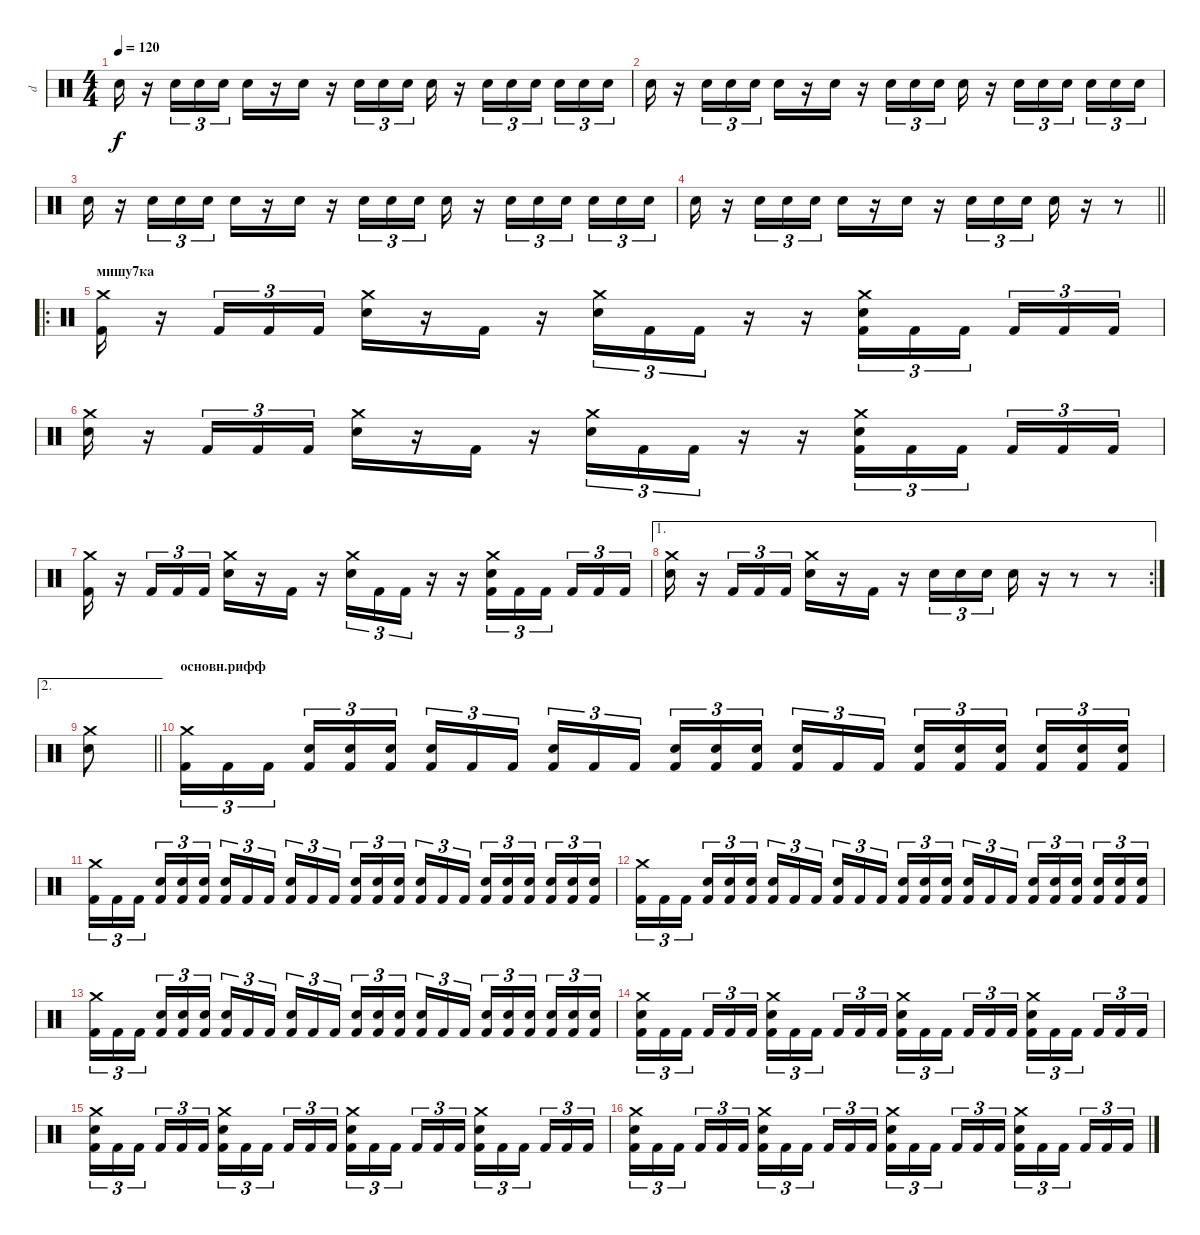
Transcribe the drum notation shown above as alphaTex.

\track ("d" "d") {instrument percussion}
\staff {score}
\articulation defaults
\ts (4 4)
\tempo 120
\clef neutral
\ks c "Electric Snare (hit)".16{dy f volume 2}
r.16{volume 11} "Electric Snare (hit)".16{tu (3 2)} "Electric Snare (hit)".16{tu (3 2)} "Electric Snare (hit)".16{tu (3 2)} "Electric Snare (hit)".16 r.16 "Electric Snare (hit)".16 r.16 "Electric Snare (hit)".16{tu (3 2)} "Electric Snare (hit)".16{tu (3 2)} "Electric Snare (hit)".16{tu (3 2)} "Electric Snare (hit)".16 r.16 "Electric Snare (hit)".16{tu (3 2)} "Electric Snare (hit)".16{tu (3 2)} "Electric Snare (hit)".16{tu (3 2)} "Electric Snare (hit)".16{tu (3 2)} "Electric Snare (hit)".16{tu (3 2)} "Electric Snare (hit)".16{tu (3 2)} |
"Electric Snare (hit)".16 r.16 "Electric Snare (hit)".16{tu (3 2)} "Electric Snare (hit)".16{tu (3 2)} "Electric Snare (hit)".16{tu (3 2)} "Electric Snare (hit)".16 r.16 "Electric Snare (hit)".16 r.16 "Electric Snare (hit)".16{tu (3 2)} "Electric Snare (hit)".16{tu (3 2)} "Electric Snare (hit)".16{tu (3 2)} "Electric Snare (hit)".16 r.16 "Electric Snare (hit)".16{tu (3 2)} "Electric Snare (hit)".16{tu (3 2)} "Electric Snare (hit)".16{tu (3 2)} "Electric Snare (hit)".16{tu (3 2)} "Electric Snare (hit)".16{tu (3 2)} "Electric Snare (hit)".16{tu (3 2)} |
"Electric Snare (hit)".16 r.16 "Electric Snare (hit)".16{tu (3 2)} "Electric Snare (hit)".16{tu (3 2)} "Electric Snare (hit)".16{tu (3 2)} "Electric Snare (hit)".16 r.16 "Electric Snare (hit)".16 r.16 "Electric Snare (hit)".16{tu (3 2)} "Electric Snare (hit)".16{tu (3 2)} "Electric Snare (hit)".16{tu (3 2)} "Electric Snare (hit)".16 r.16 "Electric Snare (hit)".16{tu (3 2)} "Electric Snare (hit)".16{tu (3 2)} "Electric Snare (hit)".16{tu (3 2)} "Electric Snare (hit)".16{tu (3 2)} "Electric Snare (hit)".16{tu (3 2)} "Electric Snare (hit)".16{tu (3 2)} |
\barLineRight lightlight "Electric Snare (hit)".16
r.16 "Electric Snare (hit)".16{tu (3 2)} "Electric Snare (hit)".16{tu (3 2)} "Electric Snare (hit)".16{tu (3 2)} "Electric Snare (hit)".16 r.16 "Electric Snare (hit)".16 r.16 "Electric Snare (hit)".16{tu (3 2)} "Electric Snare (hit)".16{tu (3 2)} "Electric Snare (hit)".16{tu (3 2)} "Electric Snare (hit)".16 r.16 r.8 |
\ro
\section ("" "мишу7ка")
("Kick (hit) 2" "Crash medium (hit)").16 r.16 "Kick (hit) 2".16{tu (3 2)} "Kick (hit) 2".16{tu (3 2)} "Kick (hit) 2".16{tu (3 2)} ("Electric Snare (hit)" "Crash medium (hit)").16 r.16 "Kick (hit) 2".16 r.16 ("Electric Snare (hit)" "Crash medium (hit)").16{tu (3 2)} "Kick (hit) 2".16{tu (3 2)} "Kick (hit) 2".16{tu (3 2)} r.16 r.16 ("Kick (hit) 2" "Electric Snare (hit)" "Crash medium (hit)").16{tu (3 2)} "Kick (hit) 2".16{tu (3 2)} "Kick (hit) 2".16{tu (3 2)} "Kick (hit) 2".16{tu (3 2)} "Kick (hit) 2".16{tu (3 2)} "Kick (hit) 2".16{tu (3 2)} |
("Electric Snare (hit)" "Crash medium (hit)").16 r.16 "Kick (hit) 2".16{tu (3 2)} "Kick (hit) 2".16{tu (3 2)} "Kick (hit) 2".16{tu (3 2)} ("Electric Snare (hit)" "Crash medium (hit)").16 r.16 "Kick (hit) 2".16 r.16 ("Electric Snare (hit)" "Crash medium (hit)").16{tu (3 2)} "Kick (hit) 2".16{tu (3 2)} "Kick (hit) 2".16{tu (3 2)} r.16 r.16 ("Kick (hit) 2" "Electric Snare (hit)" "Crash medium (hit)").16{tu (3 2)} "Kick (hit) 2".16{tu (3 2)} "Kick (hit) 2".16{tu (3 2)} "Kick (hit) 2".16{tu (3 2)} "Kick (hit) 2".16{tu (3 2)} "Kick (hit) 2".16{tu (3 2)} |
("Kick (hit) 2" "Crash medium (hit)").16 r.16 "Kick (hit) 2".16{tu (3 2)} "Kick (hit) 2".16{tu (3 2)} "Kick (hit) 2".16{tu (3 2)} ("Electric Snare (hit)" "Crash medium (hit)").16 r.16 "Kick (hit) 2".16 r.16 ("Electric Snare (hit)" "Crash medium (hit)").16{tu (3 2)} "Kick (hit) 2".16{tu (3 2)} "Kick (hit) 2".16{tu (3 2)} r.16 r.16 ("Kick (hit) 2" "Electric Snare (hit)" "Crash medium (hit)").16{tu (3 2)} "Kick (hit) 2".16{tu (3 2)} "Kick (hit) 2".16{tu (3 2)} "Kick (hit) 2".16{tu (3 2)} "Kick (hit) 2".16{tu (3 2)} "Kick (hit) 2".16{tu (3 2)} |
\ae 1
\rc 2
("Electric Snare (hit)" "Crash medium (hit)").16 r.16 "Kick (hit) 2".16{tu (3 2)} "Kick (hit) 2".16{tu (3 2)} "Kick (hit) 2".16{tu (3 2)} ("Electric Snare (hit)" "Crash medium (hit)").16 r.16 "Kick (hit) 2".16 r.16 "Electric Snare (hit)".16{tu (3 2)} "Electric Snare (hit)".16{tu (3 2)} "Electric Snare (hit)".16{tu (3 2)} "Electric Snare (hit)".16 r.16 r.8 r.8 |
\ae 2
\barLineRight lightlight
("Electric Snare (hit)" "Crash medium (hit)").8 |
\section ("" "основн.рифф")
("Crash medium (hit)" "Kick (hit) 2").16{tu (3 2)} "Kick (hit) 2".16{tu (3 2)} "Kick (hit) 2".16{tu (3 2)} ("Electric Snare (hit)" "Kick (hit) 2").16{tu (3 2)} ("Electric Snare (hit)" "Kick (hit) 2").16{tu (3 2)} ("Electric Snare (hit)" "Kick (hit) 2").16{tu (3 2)} ("Electric Snare (hit)" "Kick (hit) 2").16{tu (3 2)} "Kick (hit) 2".16{tu (3 2)} "Kick (hit) 2".16{tu (3 2)} ("Electric Snare (hit)" "Kick (hit) 2").16{tu (3 2)} "Kick (hit) 2".16{tu (3 2)} "Kick (hit) 2".16{tu (3 2)} ("Electric Snare (hit)" "Kick (hit) 2").16{tu (3 2)} ("Electric Snare (hit)" "Kick (hit) 2").16{tu (3 2)} ("Electric Snare (hit)" "Kick (hit) 2").16{tu (3 2)} ("Electric Snare (hit)" "Kick (hit) 2").16{tu (3 2)} "Kick (hit) 2".16{tu (3 2)} "Kick (hit) 2".16{tu (3 2)} ("Electric Snare (hit)" "Kick (hit) 2").16{tu (3 2)} ("Electric Snare (hit)" "Kick (hit) 2").16{tu (3 2)} ("Electric Snare (hit)" "Kick (hit) 2").16{tu (3 2)} ("Electric Snare (hit)" "Kick (hit) 2").16{tu (3 2)} ("Electric Snare (hit)" "Kick (hit) 2").16{tu (3 2)} ("Electric Snare (hit)" "Kick (hit) 2").16{tu (3 2)} |
("Crash medium (hit)" "Kick (hit) 2").16{tu (3 2)} "Kick (hit) 2".16{tu (3 2)} "Kick (hit) 2".16{tu (3 2)} ("Electric Snare (hit)" "Kick (hit) 2").16{tu (3 2)} ("Electric Snare (hit)" "Kick (hit) 2").16{tu (3 2)} ("Electric Snare (hit)" "Kick (hit) 2").16{tu (3 2)} ("Electric Snare (hit)" "Kick (hit) 2").16{tu (3 2)} "Kick (hit) 2".16{tu (3 2)} "Kick (hit) 2".16{tu (3 2)} ("Electric Snare (hit)" "Kick (hit) 2").16{tu (3 2)} "Kick (hit) 2".16{tu (3 2)} "Kick (hit) 2".16{tu (3 2)} ("Electric Snare (hit)" "Kick (hit) 2").16{tu (3 2)} ("Electric Snare (hit)" "Kick (hit) 2").16{tu (3 2)} ("Electric Snare (hit)" "Kick (hit) 2").16{tu (3 2)} ("Electric Snare (hit)" "Kick (hit) 2").16{tu (3 2)} "Kick (hit) 2".16{tu (3 2)} "Kick (hit) 2".16{tu (3 2)} ("Electric Snare (hit)" "Kick (hit) 2").16{tu (3 2)} ("Electric Snare (hit)" "Kick (hit) 2").16{tu (3 2)} ("Electric Snare (hit)" "Kick (hit) 2").16{tu (3 2)} ("Electric Snare (hit)" "Kick (hit) 2").16{tu (3 2)} ("Electric Snare (hit)" "Kick (hit) 2").16{tu (3 2)} ("Electric Snare (hit)" "Kick (hit) 2").16{tu (3 2)} |
("Crash medium (hit)" "Kick (hit) 2").16{tu (3 2)} "Kick (hit) 2".16{tu (3 2)} "Kick (hit) 2".16{tu (3 2)} ("Electric Snare (hit)" "Kick (hit) 2").16{tu (3 2)} ("Electric Snare (hit)" "Kick (hit) 2").16{tu (3 2)} ("Electric Snare (hit)" "Kick (hit) 2").16{tu (3 2)} ("Electric Snare (hit)" "Kick (hit) 2").16{tu (3 2)} "Kick (hit) 2".16{tu (3 2)} "Kick (hit) 2".16{tu (3 2)} ("Electric Snare (hit)" "Kick (hit) 2").16{tu (3 2)} "Kick (hit) 2".16{tu (3 2)} "Kick (hit) 2".16{tu (3 2)} ("Electric Snare (hit)" "Kick (hit) 2").16{tu (3 2)} ("Electric Snare (hit)" "Kick (hit) 2").16{tu (3 2)} ("Electric Snare (hit)" "Kick (hit) 2").16{tu (3 2)} ("Electric Snare (hit)" "Kick (hit) 2").16{tu (3 2)} "Kick (hit) 2".16{tu (3 2)} "Kick (hit) 2".16{tu (3 2)} ("Electric Snare (hit)" "Kick (hit) 2").16{tu (3 2)} ("Electric Snare (hit)" "Kick (hit) 2").16{tu (3 2)} ("Electric Snare (hit)" "Kick (hit) 2").16{tu (3 2)} ("Electric Snare (hit)" "Kick (hit) 2").16{tu (3 2)} ("Electric Snare (hit)" "Kick (hit) 2").16{tu (3 2)} ("Electric Snare (hit)" "Kick (hit) 2").16{tu (3 2)} |
("Crash medium (hit)" "Kick (hit) 2").16{tu (3 2)} "Kick (hit) 2".16{tu (3 2)} "Kick (hit) 2".16{tu (3 2)} ("Electric Snare (hit)" "Kick (hit) 2").16{tu (3 2)} ("Electric Snare (hit)" "Kick (hit) 2").16{tu (3 2)} ("Electric Snare (hit)" "Kick (hit) 2").16{tu (3 2)} ("Electric Snare (hit)" "Kick (hit) 2").16{tu (3 2)} "Kick (hit) 2".16{tu (3 2)} "Kick (hit) 2".16{tu (3 2)} ("Electric Snare (hit)" "Kick (hit) 2").16{tu (3 2)} "Kick (hit) 2".16{tu (3 2)} "Kick (hit) 2".16{tu (3 2)} ("Electric Snare (hit)" "Kick (hit) 2").16{tu (3 2)} ("Electric Snare (hit)" "Kick (hit) 2").16{tu (3 2)} ("Electric Snare (hit)" "Kick (hit) 2").16{tu (3 2)} ("Electric Snare (hit)" "Kick (hit) 2").16{tu (3 2)} "Kick (hit) 2".16{tu (3 2)} "Kick (hit) 2".16{tu (3 2)} ("Electric Snare (hit)" "Kick (hit) 2").16{tu (3 2)} ("Electric Snare (hit)" "Kick (hit) 2").16{tu (3 2)} ("Electric Snare (hit)" "Kick (hit) 2").16{tu (3 2)} ("Electric Snare (hit)" "Kick (hit) 2").16{tu (3 2)} ("Electric Snare (hit)" "Kick (hit) 2").16{tu (3 2)} ("Electric Snare (hit)" "Kick (hit) 2").16{tu (3 2)} |
("Crash medium (hit)" "Electric Snare (hit)" "Kick (hit) 2").16{tu (3 2)} "Kick (hit) 2".16{tu (3 2)} "Kick (hit) 2".16{tu (3 2)} "Kick (hit) 2".16{tu (3 2)} "Kick (hit) 2".16{tu (3 2)} "Kick (hit) 2".16{tu (3 2)} ("Crash medium (hit)" "Electric Snare (hit)" "Kick (hit) 2").16{tu (3 2)} "Kick (hit) 2".16{tu (3 2)} "Kick (hit) 2".16{tu (3 2)} "Kick (hit) 2".16{tu (3 2)} "Kick (hit) 2".16{tu (3 2)} "Kick (hit) 2".16{tu (3 2)} ("Crash medium (hit)" "Electric Snare (hit)" "Kick (hit) 2").16{tu (3 2)} "Kick (hit) 2".16{tu (3 2)} "Kick (hit) 2".16{tu (3 2)} "Kick (hit) 2".16{tu (3 2)} "Kick (hit) 2".16{tu (3 2)} "Kick (hit) 2".16{tu (3 2)} ("Crash medium (hit)" "Electric Snare (hit)" "Kick (hit) 2").16{tu (3 2)} "Kick (hit) 2".16{tu (3 2)} "Kick (hit) 2".16{tu (3 2)} "Kick (hit) 2".16{tu (3 2)} "Kick (hit) 2".16{tu (3 2)} "Kick (hit) 2".16{tu (3 2)} |
("Crash medium (hit)" "Electric Snare (hit)" "Kick (hit) 2").16{tu (3 2)} "Kick (hit) 2".16{tu (3 2)} "Kick (hit) 2".16{tu (3 2)} "Kick (hit) 2".16{tu (3 2)} "Kick (hit) 2".16{tu (3 2)} "Kick (hit) 2".16{tu (3 2)} ("Crash medium (hit)" "Electric Snare (hit)" "Kick (hit) 2").16{tu (3 2)} "Kick (hit) 2".16{tu (3 2)} "Kick (hit) 2".16{tu (3 2)} "Kick (hit) 2".16{tu (3 2)} "Kick (hit) 2".16{tu (3 2)} "Kick (hit) 2".16{tu (3 2)} ("Crash medium (hit)" "Electric Snare (hit)" "Kick (hit) 2").16{tu (3 2)} "Kick (hit) 2".16{tu (3 2)} "Kick (hit) 2".16{tu (3 2)} "Kick (hit) 2".16{tu (3 2)} "Kick (hit) 2".16{tu (3 2)} "Kick (hit) 2".16{tu (3 2)} ("Crash medium (hit)" "Electric Snare (hit)" "Kick (hit) 2").16{tu (3 2)} "Kick (hit) 2".16{tu (3 2)} "Kick (hit) 2".16{tu (3 2)} "Kick (hit) 2".16{tu (3 2)} "Kick (hit) 2".16{tu (3 2)} "Kick (hit) 2".16{tu (3 2)} |
("Crash medium (hit)" "Electric Snare (hit)" "Kick (hit) 2").16{tu (3 2)} "Kick (hit) 2".16{tu (3 2)} "Kick (hit) 2".16{tu (3 2)} "Kick (hit) 2".16{tu (3 2)} "Kick (hit) 2".16{tu (3 2)} "Kick (hit) 2".16{tu (3 2)} ("Crash medium (hit)" "Electric Snare (hit)" "Kick (hit) 2").16{tu (3 2)} "Kick (hit) 2".16{tu (3 2)} "Kick (hit) 2".16{tu (3 2)} "Kick (hit) 2".16{tu (3 2)} "Kick (hit) 2".16{tu (3 2)} "Kick (hit) 2".16{tu (3 2)} ("Crash medium (hit)" "Electric Snare (hit)" "Kick (hit) 2").16{tu (3 2)} "Kick (hit) 2".16{tu (3 2)} "Kick (hit) 2".16{tu (3 2)} "Kick (hit) 2".16{tu (3 2)} "Kick (hit) 2".16{tu (3 2)} "Kick (hit) 2".16{tu (3 2)} ("Crash medium (hit)" "Electric Snare (hit)" "Kick (hit) 2").16{tu (3 2)} "Kick (hit) 2".16{tu (3 2)} "Kick (hit) 2".16{tu (3 2)} "Kick (hit) 2".16{tu (3 2)} "Kick (hit) 2".16{tu (3 2)} "Kick (hit) 2".16{tu (3 2)}
